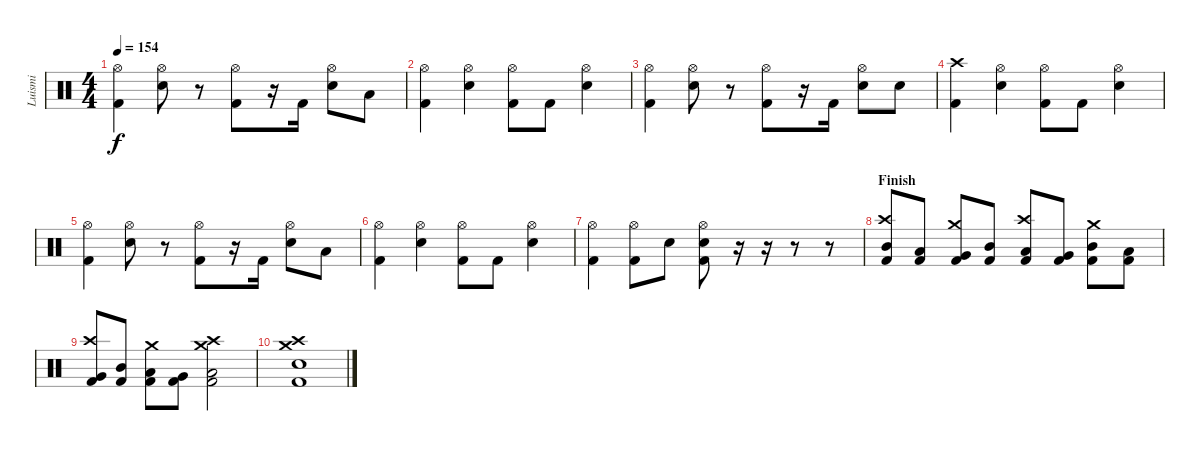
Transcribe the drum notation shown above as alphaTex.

\track ("Luismi" "Luismi") {instrument percussion}
\staff {score}
\articulation defaults
\ts (4 4)
\tempo 154
\clef neutral
\ks c
("Hi-Hat (open)" "Kick (hit) 2").4{dy f} ("Hi-Hat (open)" "Electric Snare (hit)").8 r.8 ("Hi-Hat (open)" "Kick (hit) 2").8 r.16 "Kick (hit) 2".16 ("Hi-Hat (open)" "Electric Snare (hit)").8 "Low Floor Tom (hit)".8 |
("Hi-Hat (open)" "Kick (hit) 2").4 ("Hi-Hat (open)" "Electric Snare (hit)").4 ("Hi-Hat (open)" "Kick (hit) 2").8 "Kick (hit) 2".8 ("Hi-Hat (open)" "Electric Snare (hit)").4 |
("Hi-Hat (open)" "Kick (hit) 2").4 ("Hi-Hat (open)" "Electric Snare (hit)").8 r.8 ("Hi-Hat (open)" "Kick (hit) 2").8 r.16 "Kick (hit) 2".16 ("Hi-Hat (open)" "Electric Snare (hit)").8 "Electric Snare (hit)".8 |
("Crash high (hit)" "Kick (hit) 2").4 ("Hi-Hat (open)" "Electric Snare (hit)").4 ("Hi-Hat (open)" "Kick (hit) 2").8 "Kick (hit) 2".8 ("Hi-Hat (open)" "Electric Snare (hit)").4 |
("Hi-Hat (open)" "Kick (hit) 2").4 ("Hi-Hat (open)" "Electric Snare (hit)").8 r.8 ("Hi-Hat (open)" "Kick (hit) 2").8 r.16 "Kick (hit) 2".16 ("Hi-Hat (open)" "Electric Snare (hit)").8 "Low Floor Tom (hit)".8 |
("Hi-Hat (open)" "Kick (hit) 2").4 ("Hi-Hat (open)" "Electric Snare (hit)").4 ("Hi-Hat (open)" "Kick (hit) 2").8 "Kick (hit) 2".8 ("Hi-Hat (open)" "Electric Snare (hit)").4 |
("Hi-Hat (open)" "Kick (hit) 2").4 ("Hi-Hat (open)" "Kick (hit) 2").8 "Electric Snare (hit)".8 ("Hi-Hat (open)" "Electric Snare (hit)" "Kick (hit) 2").8 r.16 r.16 r.8 r.8 |
\section ("" "Finish")
("Crash high (hit)" "Mid Tom (hit)" "Kick (hit) 2").8 ("Low Tom (hit)" "Kick (hit) 2").8 ("Crash medium (hit)" "Very Low Tom (hit)" "Kick (hit) 2").8 ("Mid Tom (hit)" "Kick (hit) 2").8 ("Crash high (hit)" "Low Tom (hit)" "Kick (hit) 2").8 ("Very Low Tom (hit)" "Kick (hit) 2").8 ("Crash medium (hit)" "Mid Tom (hit)" "Kick (hit) 2").8 ("Low Tom (hit)" "Kick (hit) 2").8 |
("Crash high (hit)" "Very Low Tom (hit)" "Kick (hit) 2").8 ("Mid Tom (hit)" "Kick (hit) 2").8 ("Crash medium (hit)" "Low Tom (hit)" "Kick (hit) 2").8 ("Very Low Tom (hit)" "Kick (hit) 2").8 ("Crash high (hit)" "Crash medium (hit)" "Low Floor Tom (hit)" "Kick (hit) 2").2 |
("Crash high (hit)" "Crash medium (hit)" "Electric Snare (hit)" "Kick (hit) 2").1
